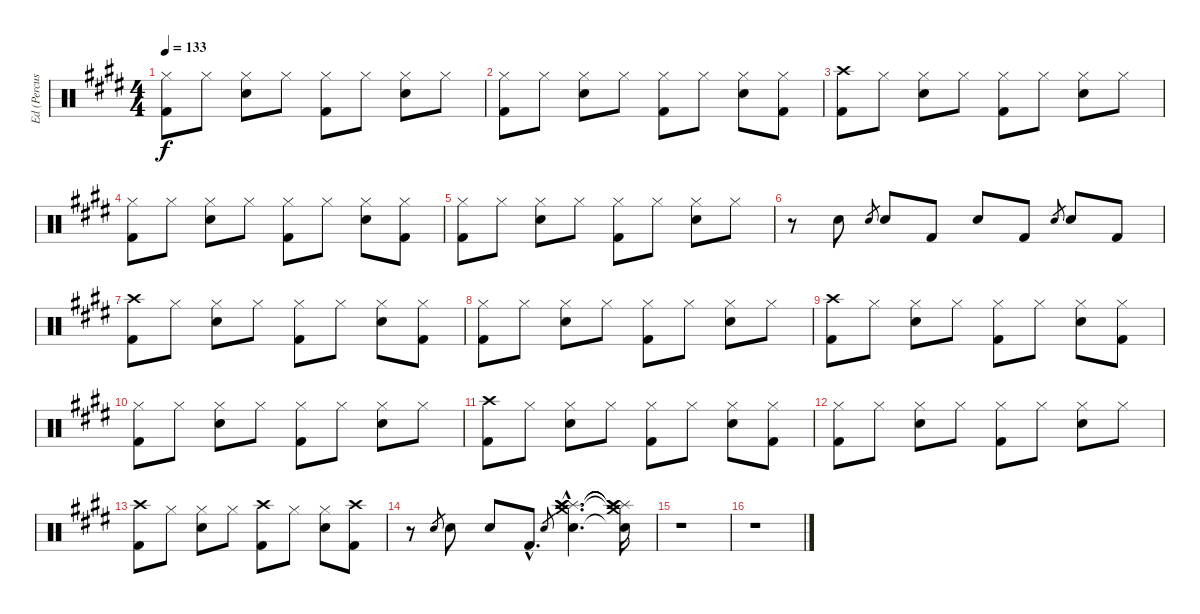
\track ("Ed (Percussion/Drums)" "Ed (Percus") {instrument percussion}
\staff {score}
\articulation defaults
\ts (4 4)
\tempo 133
\clef neutral
\ks e
("Hi-Hat (closed)" "Kick (hit) 2").8{dy f} "Hi-Hat (closed)".8 ("Hi-Hat (closed)" "Snare (hit) 2").8 "Hi-Hat (closed)".8 ("Hi-Hat (closed)" "Kick (hit) 2").8 "Hi-Hat (closed)".8 ("Hi-Hat (closed)" "Snare (hit) 2").8 "Hi-Hat (closed)".8 |
("Hi-Hat (closed)" "Kick (hit) 2").8 "Hi-Hat (closed)".8 ("Hi-Hat (closed)" "Snare (hit) 2").8 "Hi-Hat (closed)".8 ("Hi-Hat (closed)" "Kick (hit) 2").8 "Hi-Hat (closed)".8 ("Hi-Hat (closed)" "Snare (hit) 2").8 ("Hi-Hat (closed)" "Kick (hit) 2").8 |
("Crash high (hit)" "Kick (hit) 2").8 "Hi-Hat (closed)".8 ("Hi-Hat (closed)" "Snare (hit) 2").8 "Hi-Hat (closed)".8 ("Hi-Hat (closed)" "Kick (hit) 2").8 "Hi-Hat (closed)".8 ("Hi-Hat (closed)" "Snare (hit) 2").8 "Hi-Hat (closed)".8 |
("Hi-Hat (closed)" "Kick (hit) 2").8 "Hi-Hat (closed)".8 ("Hi-Hat (closed)" "Snare (hit) 2").8 "Hi-Hat (closed)".8 ("Hi-Hat (closed)" "Kick (hit) 2").8 "Hi-Hat (closed)".8 ("Hi-Hat (closed)" "Snare (hit) 2").8 ("Hi-Hat (closed)" "Kick (hit) 2").8 |
("Hi-Hat (closed)" "Kick (hit) 2").8 "Hi-Hat (closed)".8 ("Hi-Hat (closed)" "Snare (hit) 2").8 "Hi-Hat (closed)".8 ("Hi-Hat (closed)" "Kick (hit) 2").8 "Hi-Hat (closed)".8 ("Hi-Hat (closed)" "Snare (hit) 2").8 "Hi-Hat (closed)".8 |
r.8 "Snare (hit) 2".8 "Snare (hit) 2".8{gr} "Snare (hit) 2".8 "Kick (hit) 2".8 "Snare (hit) 2".8 "Kick (hit) 2".8 "Snare (hit) 2".8{gr} "Snare (hit) 2".8 "Kick (hit) 2".8 |
("Crash high (hit)" "Kick (hit) 2").8 "Hi-Hat (closed)".8 ("Hi-Hat (closed)" "Snare (hit) 2").8 "Hi-Hat (closed)".8 ("Hi-Hat (closed)" "Kick (hit) 2").8 "Hi-Hat (closed)".8 ("Hi-Hat (closed)" "Snare (hit) 2").8 ("Hi-Hat (closed)" "Kick (hit) 2").8 |
("Hi-Hat (closed)" "Kick (hit) 2").8 "Hi-Hat (closed)".8 ("Hi-Hat (closed)" "Snare (hit) 2").8 "Hi-Hat (closed)".8 ("Hi-Hat (closed)" "Kick (hit) 2").8 "Hi-Hat (closed)".8 ("Hi-Hat (closed)" "Snare (hit) 2").8 "Hi-Hat (closed)".8 |
("Crash high (hit)" "Kick (hit) 2").8 "Hi-Hat (closed)".8 ("Hi-Hat (closed)" "Snare (hit) 2").8 "Hi-Hat (closed)".8 ("Hi-Hat (closed)" "Kick (hit) 2").8 "Hi-Hat (closed)".8 ("Hi-Hat (closed)" "Snare (hit) 2").8 ("Hi-Hat (closed)" "Kick (hit) 2").8 |
("Hi-Hat (closed)" "Kick (hit) 2").8 "Hi-Hat (closed)".8 ("Hi-Hat (closed)" "Snare (hit) 2").8 "Hi-Hat (closed)".8 ("Hi-Hat (closed)" "Kick (hit) 2").8 "Hi-Hat (closed)".8 ("Hi-Hat (closed)" "Snare (hit) 2").8 "Hi-Hat (closed)".8 |
("Crash high (hit)" "Kick (hit) 2").8 "Hi-Hat (closed)".8 ("Hi-Hat (closed)" "Snare (hit) 2").8 "Hi-Hat (closed)".8 ("Hi-Hat (closed)" "Kick (hit) 2").8 "Hi-Hat (closed)".8 ("Hi-Hat (closed)" "Snare (hit) 2").8 ("Hi-Hat (closed)" "Kick (hit) 2").8 |
("Hi-Hat (closed)" "Kick (hit) 2").8 "Hi-Hat (closed)".8 ("Hi-Hat (closed)" "Snare (hit) 2").8 "Hi-Hat (closed)".8 ("Hi-Hat (closed)" "Kick (hit) 2").8 "Hi-Hat (closed)".8 ("Hi-Hat (closed)" "Snare (hit) 2").8 "Hi-Hat (closed)".8 |
("Crash high (hit)" "Kick (hit) 2").8 "Hi-Hat (closed)".8 ("Hi-Hat (closed)" "Snare (hit) 2").8 "Hi-Hat (closed)".8 ("Crash high (hit)" "Kick (hit) 2").8 "Hi-Hat (closed)".8 ("Hi-Hat (closed)" "Snare (hit) 2").8 ("Crash high (hit)" "Kick (hit) 2").8 |
r.8 "Snare (hit) 2".8{gr} "Snare (hit) 2".8 "Snare (hit) 2".8 "Kick (hit) 2"{hac}.8{d} "Snare (hit) 2".8{gr} ("Snare (hit) 2"{hac} "Splash (hit)"{hac} "Crash high (hit)"{hac} "Crash medium (hit)"{hac} "Crash high (hit)"{hac}).4{d} ("Snare (hit) 2"{t} "Splash (hit)"{t} "Crash high (hit)"{t} "Crash medium (hit)"{t} "Crash high (hit)"{t}).16 |
r.1 |
r.1
